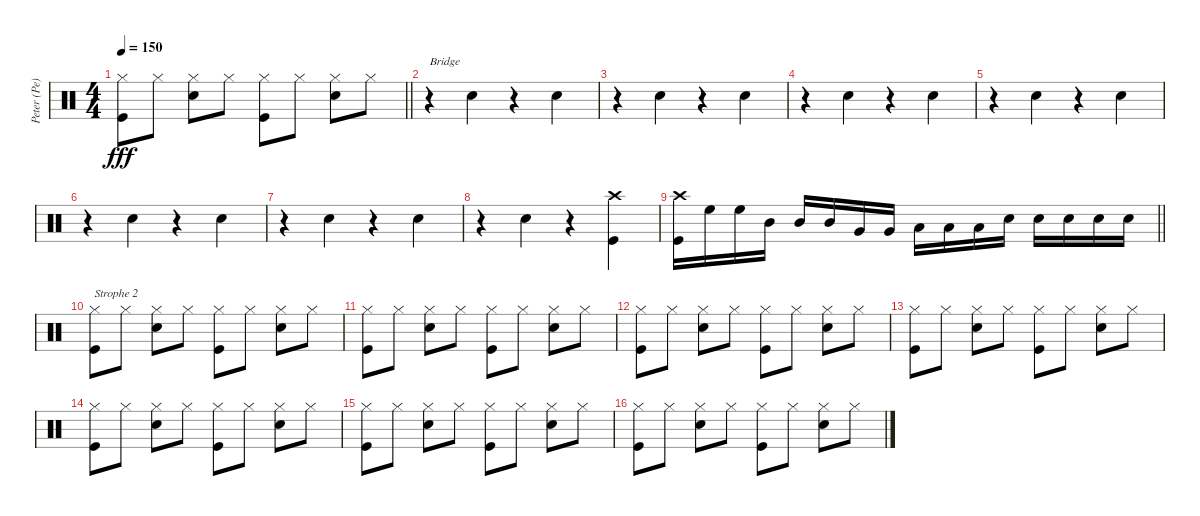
\track ("Peter (Pe) Schorowsky" "Peter (Pe)") {instrument percussion}
\staff {score}
\articulation defaults
\ts (4 4)
\tempo 150
\clef neutral
\barLineRight lightlight
\ks c
("Kick (hit)" "Hi-Hat (closed)").8{dy fff} "Hi-Hat (closed)".8 ("Electric Snare (hit)" "Hi-Hat (closed)").8 "Hi-Hat (closed)".8 ("Kick (hit)" "Hi-Hat (closed)").8 "Hi-Hat (closed)".8 ("Electric Snare (hit)" "Hi-Hat (closed)").8 "Hi-Hat (closed)".8 |
r.4{txt "Bridge"} "Electric Snare (hit)".4 r.4 "Electric Snare (hit)".4 |
r.4 "Electric Snare (hit)".4 r.4 "Electric Snare (hit)".4 |
r.4 "Electric Snare (hit)".4 r.4 "Electric Snare (hit)".4 |
r.4 "Electric Snare (hit)".4 r.4 "Electric Snare (hit)".4 |
r.4 "Electric Snare (hit)".4 r.4 "Electric Snare (hit)".4 |
r.4 "Electric Snare (hit)".4 r.4 "Electric Snare (hit)".4 |
r.4 "Electric Snare (hit)".4 r.4 ("Crash high (hit)" "Kick (hit)").4 |
\barLineRight lightlight
("Crash high (hit)" "Kick (hit)").16 "High Floor Tom (hit)".16 "High Floor Tom (hit)".16 "Mid Tom (hit)".16 "Mid Tom (hit)".16 "Mid Tom (hit)".16 "Very Low Tom (hit)".16 "Very Low Tom (hit)".16 "Low Floor Tom (hit)".16 "Low Floor Tom (hit)".16 "Low Floor Tom (hit)".16 "Electric Snare (hit)".16 "Electric Snare (hit)".16 "Electric Snare (hit)".16 "Electric Snare (hit)".16 "Electric Snare (hit)".16 |
("Kick (hit)" "Hi-Hat (closed)").8{txt "Strophe 2"} "Hi-Hat (closed)".8 ("Electric Snare (hit)" "Hi-Hat (closed)").8 "Hi-Hat (closed)".8 ("Kick (hit)" "Hi-Hat (closed)").8 "Hi-Hat (closed)".8 ("Electric Snare (hit)" "Hi-Hat (closed)").8 "Hi-Hat (closed)".8 |
("Kick (hit)" "Hi-Hat (closed)").8 "Hi-Hat (closed)".8 ("Electric Snare (hit)" "Hi-Hat (closed)").8 "Hi-Hat (closed)".8 ("Kick (hit)" "Hi-Hat (closed)").8 "Hi-Hat (closed)".8 ("Electric Snare (hit)" "Hi-Hat (closed)").8 "Hi-Hat (closed)".8 |
("Kick (hit)" "Hi-Hat (closed)").8 "Hi-Hat (closed)".8 ("Electric Snare (hit)" "Hi-Hat (closed)").8 "Hi-Hat (closed)".8 ("Kick (hit)" "Hi-Hat (closed)").8 "Hi-Hat (closed)".8 ("Electric Snare (hit)" "Hi-Hat (closed)").8 "Hi-Hat (closed)".8 |
("Kick (hit)" "Hi-Hat (closed)").8 "Hi-Hat (closed)".8 ("Electric Snare (hit)" "Hi-Hat (closed)").8 "Hi-Hat (closed)".8 ("Kick (hit)" "Hi-Hat (closed)").8 "Hi-Hat (closed)".8 ("Electric Snare (hit)" "Hi-Hat (closed)").8 "Hi-Hat (closed)".8 |
("Kick (hit)" "Hi-Hat (closed)").8 "Hi-Hat (closed)".8 ("Electric Snare (hit)" "Hi-Hat (closed)").8 "Hi-Hat (closed)".8 ("Kick (hit)" "Hi-Hat (closed)").8 "Hi-Hat (closed)".8 ("Electric Snare (hit)" "Hi-Hat (closed)").8 "Hi-Hat (closed)".8 |
("Kick (hit)" "Hi-Hat (closed)").8 "Hi-Hat (closed)".8 ("Electric Snare (hit)" "Hi-Hat (closed)").8 "Hi-Hat (closed)".8 ("Kick (hit)" "Hi-Hat (closed)").8 "Hi-Hat (closed)".8 ("Electric Snare (hit)" "Hi-Hat (closed)").8 "Hi-Hat (closed)".8 |
("Kick (hit)" "Hi-Hat (closed)").8 "Hi-Hat (closed)".8 ("Electric Snare (hit)" "Hi-Hat (closed)").8 "Hi-Hat (closed)".8 ("Kick (hit)" "Hi-Hat (closed)").8 "Hi-Hat (closed)".8 ("Electric Snare (hit)" "Hi-Hat (closed)").8 "Hi-Hat (closed)".8
